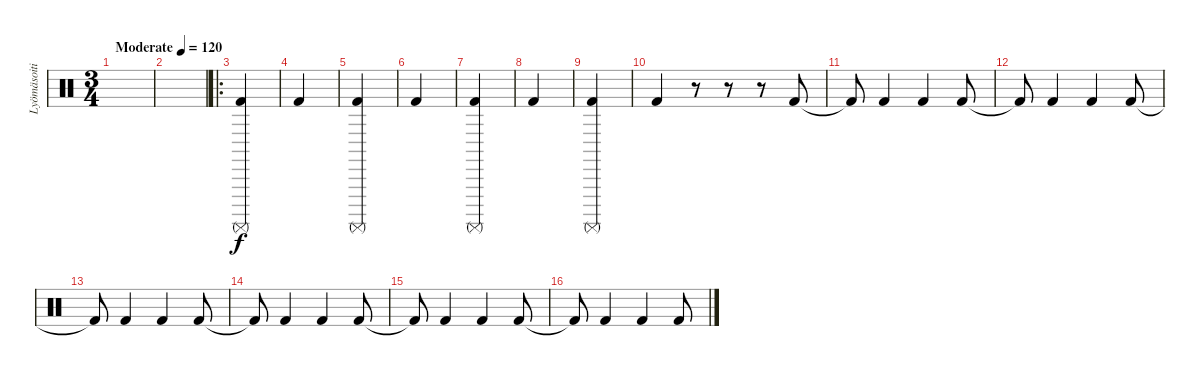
\track ("Lyömäsoitin" "Lyömäsoiti") {solo instrument percussion}
\staff {score}
\articulation defaults
\ts (3 4)
\tempo (120 "Moderate")
\clef neutral
\ks c
|
|
\ro
("Surdo (mute)" "Kick (hit) 2").4 |
"Kick (hit) 2".4 |
("Surdo (mute)" "Kick (hit) 2").4 |
"Kick (hit) 2".4 |
("Surdo (mute)" "Kick (hit) 2").4 |
"Kick (hit) 2".4 |
("Surdo (mute)" "Kick (hit) 2").4 |
"Kick (hit) 2".4 r.8 r.8 r.8 "Kick (hit) 2".8 |
"Kick (hit) 2"{t}.8 "Kick (hit) 2".4 "Kick (hit) 2".4 "Kick (hit) 2".8 |
"Kick (hit) 2"{t}.8 "Kick (hit) 2".4 "Kick (hit) 2".4 "Kick (hit) 2".8 |
"Kick (hit) 2"{t}.8 "Kick (hit) 2".4 "Kick (hit) 2".4 "Kick (hit) 2".8 |
"Kick (hit) 2"{t}.8 "Kick (hit) 2".4 "Kick (hit) 2".4 "Kick (hit) 2".8 |
"Kick (hit) 2"{t}.8 "Kick (hit) 2".4 "Kick (hit) 2".4 "Kick (hit) 2".8 |
"Kick (hit) 2"{t}.8 "Kick (hit) 2".4 "Kick (hit) 2".4 "Kick (hit) 2".8
